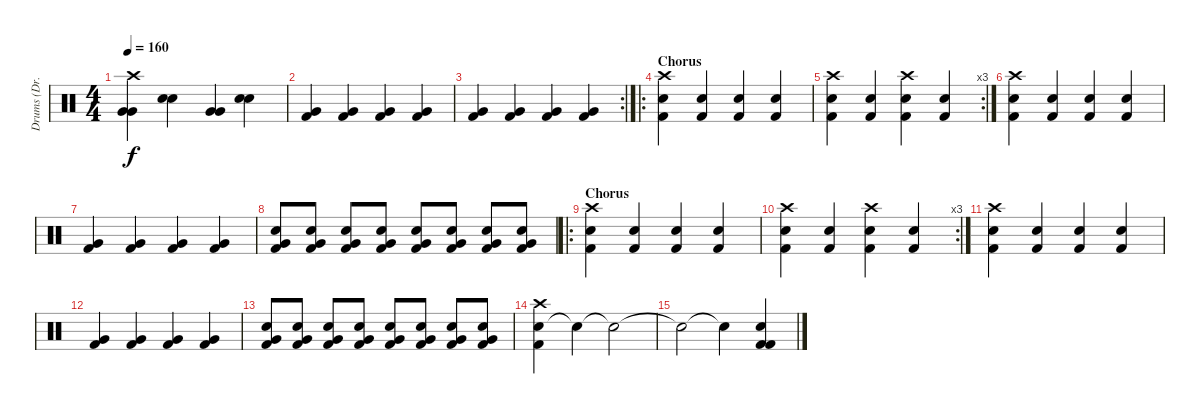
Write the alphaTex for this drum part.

\track ("Drums (Dr. Chud)" "Drums (Dr.") {instrument percussion}
\staff {score}
\articulation defaults
\ts (4 4)
\tempo 160
\clef neutral
\ks c
("Very Low Tom (hit)" "Very Low Tom (hit)" "Crash high (hit)").4{dy f} ("Electric Snare (hit)" "Electric Snare (hit)").4 ("Very Low Tom (hit)" "Very Low Tom (hit)").4 ("Electric Snare (hit)" "Electric Snare (hit)").4 |
("Very Low Tom (hit)" "Kick (hit) 2").4 ("Very Low Tom (hit)" "Kick (hit) 2").4 ("Very Low Tom (hit)" "Kick (hit) 2").4 ("Very Low Tom (hit)" "Kick (hit) 2").4 |
\rc 2
("Very Low Tom (hit)" "Kick (hit) 2").4 ("Very Low Tom (hit)" "Kick (hit) 2").4 ("Very Low Tom (hit)" "Kick (hit) 2").4 ("Very Low Tom (hit)" "Kick (hit) 2").4 |
\ro
\section ("" "Chorus")
("Electric Snare (hit)" "Kick (hit) 2" "Crash high (hit)").4 ("Electric Snare (hit)" "Kick (hit) 2").4 ("Electric Snare (hit)" "Kick (hit) 2").4 ("Electric Snare (hit)" "Kick (hit) 2").4 |
\rc 3
("Electric Snare (hit)" "Kick (hit) 2" "Crash high (hit)").4 ("Electric Snare (hit)" "Kick (hit) 2").4 ("Electric Snare (hit)" "Kick (hit) 2" "Crash high (hit)").4 ("Electric Snare (hit)" "Kick (hit) 2").4 |
("Electric Snare (hit)" "Kick (hit) 2" "Crash high (hit)").4 ("Electric Snare (hit)" "Kick (hit) 2").4 ("Electric Snare (hit)" "Kick (hit) 2").4 ("Electric Snare (hit)" "Kick (hit) 2").4 |
("Very Low Tom (hit)" "Kick (hit) 2").4 ("Very Low Tom (hit)" "Kick (hit) 2").4 ("Very Low Tom (hit)" "Kick (hit) 2").4 ("Very Low Tom (hit)" "Kick (hit) 2").4 |
("Very Low Tom (hit)" "Kick (hit) 2" "Electric Snare (hit)").8 ("Very Low Tom (hit)" "Kick (hit) 2" "Electric Snare (hit)").8 ("Very Low Tom (hit)" "Kick (hit) 2" "Electric Snare (hit)").8 ("Very Low Tom (hit)" "Kick (hit) 2" "Electric Snare (hit)").8 ("Very Low Tom (hit)" "Kick (hit) 2" "Electric Snare (hit)").8 ("Very Low Tom (hit)" "Kick (hit) 2" "Electric Snare (hit)").8 ("Very Low Tom (hit)" "Kick (hit) 2" "Electric Snare (hit)").8 ("Very Low Tom (hit)" "Kick (hit) 2" "Electric Snare (hit)").8 |
\ro
\section ("" "Chorus")
("Electric Snare (hit)" "Kick (hit) 2" "Crash high (hit)").4 ("Electric Snare (hit)" "Kick (hit) 2").4 ("Electric Snare (hit)" "Kick (hit) 2").4 ("Electric Snare (hit)" "Kick (hit) 2").4 |
\rc 3
("Electric Snare (hit)" "Kick (hit) 2" "Crash high (hit)").4 ("Electric Snare (hit)" "Kick (hit) 2").4 ("Electric Snare (hit)" "Kick (hit) 2" "Crash high (hit)").4 ("Electric Snare (hit)" "Kick (hit) 2").4 |
("Electric Snare (hit)" "Kick (hit) 2" "Crash high (hit)").4 ("Electric Snare (hit)" "Kick (hit) 2").4 ("Electric Snare (hit)" "Kick (hit) 2").4 ("Electric Snare (hit)" "Kick (hit) 2").4 |
("Very Low Tom (hit)" "Kick (hit) 2").4 ("Very Low Tom (hit)" "Kick (hit) 2").4 ("Very Low Tom (hit)" "Kick (hit) 2").4 ("Very Low Tom (hit)" "Kick (hit) 2").4 |
("Very Low Tom (hit)" "Kick (hit) 2" "Electric Snare (hit)").8 ("Very Low Tom (hit)" "Kick (hit) 2" "Electric Snare (hit)").8 ("Very Low Tom (hit)" "Kick (hit) 2" "Electric Snare (hit)").8 ("Very Low Tom (hit)" "Kick (hit) 2" "Electric Snare (hit)").8 ("Very Low Tom (hit)" "Kick (hit) 2" "Electric Snare (hit)").8 ("Very Low Tom (hit)" "Kick (hit) 2" "Electric Snare (hit)").8 ("Very Low Tom (hit)" "Kick (hit) 2" "Electric Snare (hit)").8 ("Very Low Tom (hit)" "Kick (hit) 2" "Electric Snare (hit)").8 |
("Electric Snare (hit)" "Kick (hit) 2" "Crash high (hit)").4 "Snare (hit)"{t}.4 "Snare (hit)"{t}.2 |
"Snare (hit)"{t}.2 "Snare (hit)"{t}.4 ("Electric Snare (hit)" "Kick (hit) 2" "Kick (hit) 2").4
